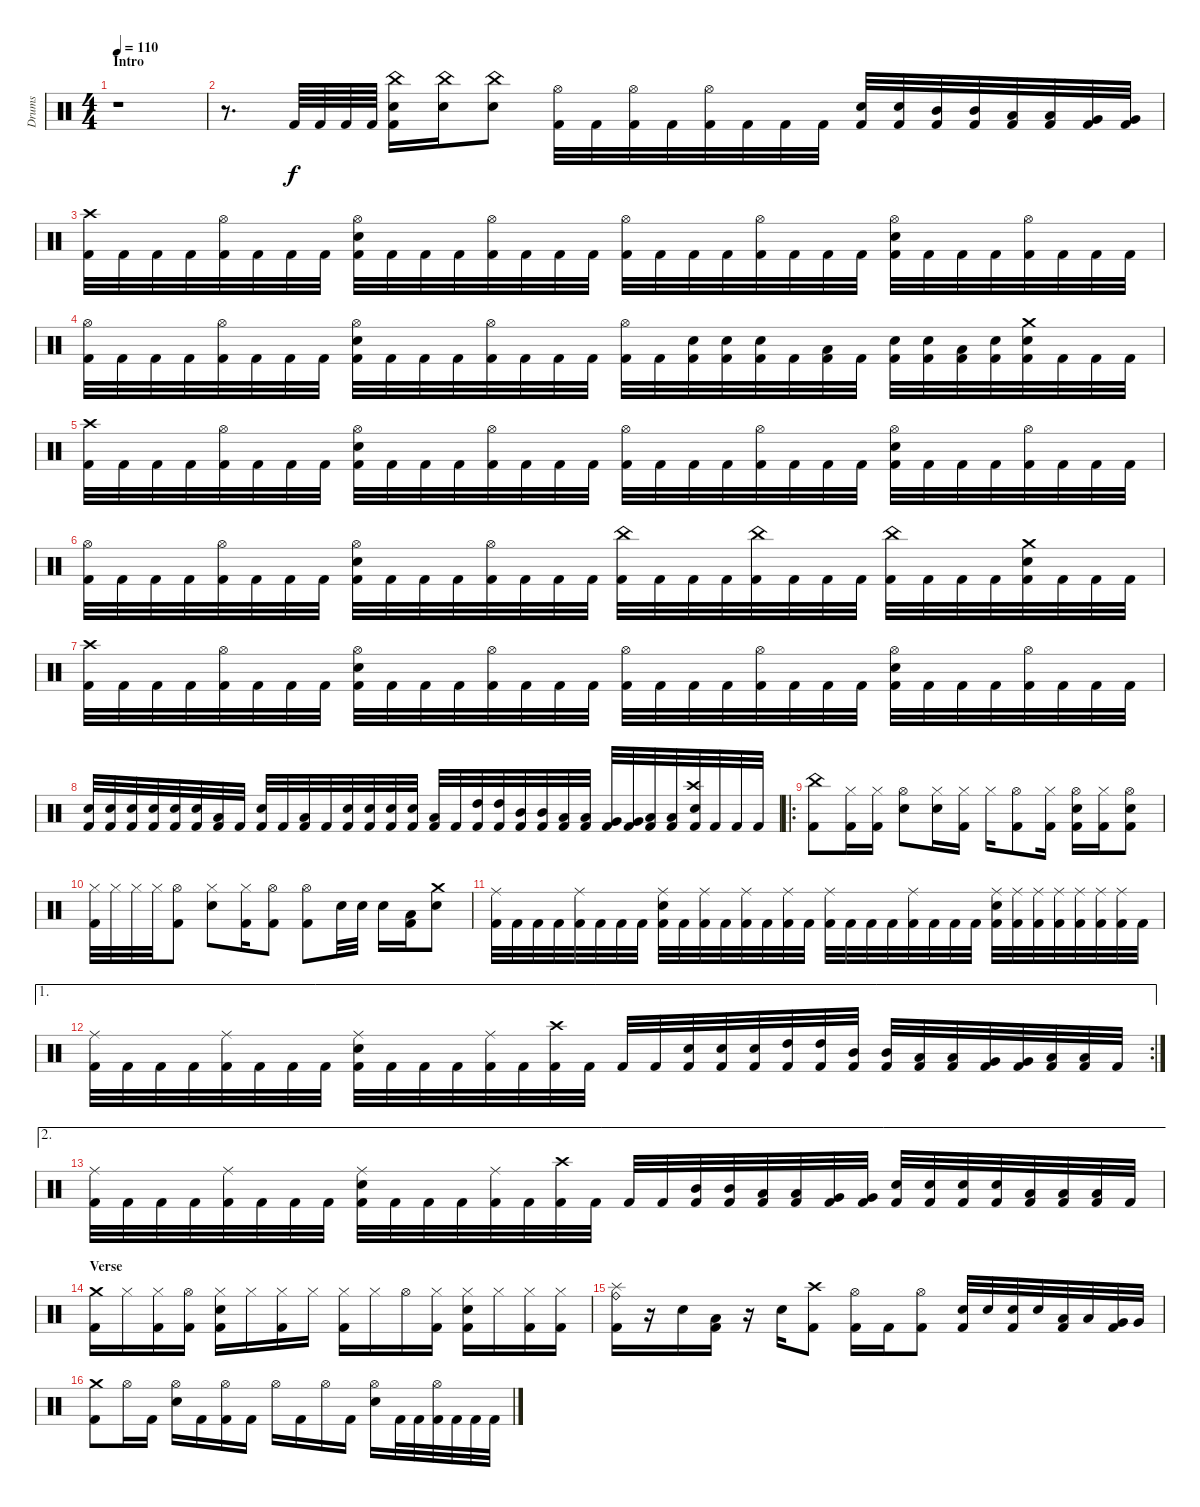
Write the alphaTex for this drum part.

\track ("Drums" "Drums") {instrument percussion}
\staff {score}
\articulation defaults
\ts (4 4)
\section ("" "Intro")
\tempo 110
\clef neutral
\ks c
r.1{dy f} |
r.8{d} "Kick (hit) 2".64 "Kick (hit) 2".64 "Kick (hit) 2".64 "Kick (hit) 2".64 ("China (hit)" "Electric Snare (hit)" "Kick (hit) 2").16 ("China (hit)" "Electric Snare (hit)").16 ("China (hit)" "Electric Snare (hit)").8 ("Hi-Hat (open)" "Kick (hit) 2").32 "Kick (hit) 2".32 ("Hi-Hat (open)" "Kick (hit) 2").32 "Kick (hit) 2".32 ("Hi-Hat (open)" "Kick (hit) 2").32 "Kick (hit) 2".32 "Kick (hit) 2".32 "Kick (hit) 2".32 ("Electric Snare (hit)" "Kick (hit) 2").32 ("Electric Snare (hit)" "Kick (hit) 2").32 ("Mid Tom (hit)" "Kick (hit) 2").32 ("Mid Tom (hit)" "Kick (hit) 2").32 ("Low Tom (hit)" "Kick (hit) 2").32 ("Low Tom (hit)" "Kick (hit) 2").32 ("Very Low Tom (hit)" "Kick (hit) 2").32 ("Very Low Tom (hit)" "Kick (hit) 2").32 |
("Crash high (hit)" "Kick (hit) 2").32 "Kick (hit) 2".32 "Kick (hit) 2".32 "Kick (hit) 2".32 ("Hi-Hat (open)" "Kick (hit) 2").32 "Kick (hit) 2".32 "Kick (hit) 2".32 "Kick (hit) 2".32 ("Hi-Hat (open)" "Electric Snare (hit)" "Kick (hit) 2").32 "Kick (hit) 2".32 "Kick (hit) 2".32 "Kick (hit) 2".32 ("Hi-Hat (open)" "Kick (hit) 2").32 "Kick (hit) 2".32 "Kick (hit) 2".32 "Kick (hit) 2".32 ("Hi-Hat (open)" "Kick (hit) 2").32 "Kick (hit) 2".32 "Kick (hit) 2".32 "Kick (hit) 2".32 ("Hi-Hat (open)" "Kick (hit) 2").32 "Kick (hit) 2".32 "Kick (hit) 2".32 "Kick (hit) 2".32 ("Hi-Hat (open)" "Electric Snare (hit)" "Kick (hit) 2").32 "Kick (hit) 2".32 "Kick (hit) 2".32 "Kick (hit) 2".32 ("Hi-Hat (open)" "Kick (hit) 2").32 "Kick (hit) 2".32 "Kick (hit) 2".32 "Kick (hit) 2".32 |
("Hi-Hat (open)" "Kick (hit) 2").32 "Kick (hit) 2".32 "Kick (hit) 2".32 "Kick (hit) 2".32 ("Hi-Hat (open)" "Kick (hit) 2").32 "Kick (hit) 2".32 "Kick (hit) 2".32 "Kick (hit) 2".32 ("Hi-Hat (open)" "Electric Snare (hit)" "Kick (hit) 2").32 "Kick (hit) 2".32 "Kick (hit) 2".32 "Kick (hit) 2".32 ("Hi-Hat (open)" "Kick (hit) 2").32 "Kick (hit) 2".32 "Kick (hit) 2".32 "Kick (hit) 2".32 ("Hi-Hat (open)" "Kick (hit) 2").32 "Kick (hit) 2".32 ("Electric Snare (hit)" "Kick (hit) 2").32 ("Electric Snare (hit)" "Kick (hit) 2").32 ("Electric Snare (hit)" "Kick (hit) 2").32 "Kick (hit) 2".32 ("Low Tom (hit)" "Kick (hit) 2").32 "Kick (hit) 2".32 ("Electric Snare (hit)" "Kick (hit) 2").32 ("Electric Snare (hit)" "Kick (hit) 2").32 ("Low Tom (hit)" "Kick (hit) 2").32 ("Electric Snare (hit)" "Kick (hit) 2").32 ("Crash medium (hit)" "Electric Snare (hit)" "Kick (hit) 2").32 "Kick (hit) 2".32 "Kick (hit) 2".32 "Kick (hit) 2".32 |
("Crash high (hit)" "Kick (hit) 2").32 "Kick (hit) 2".32 "Kick (hit) 2".32 "Kick (hit) 2".32 ("Hi-Hat (open)" "Kick (hit) 2").32 "Kick (hit) 2".32 "Kick (hit) 2".32 "Kick (hit) 2".32 ("Hi-Hat (open)" "Electric Snare (hit)" "Kick (hit) 2").32 "Kick (hit) 2".32 "Kick (hit) 2".32 "Kick (hit) 2".32 ("Hi-Hat (open)" "Kick (hit) 2").32 "Kick (hit) 2".32 "Kick (hit) 2".32 "Kick (hit) 2".32 ("Hi-Hat (open)" "Kick (hit) 2").32 "Kick (hit) 2".32 "Kick (hit) 2".32 "Kick (hit) 2".32 ("Hi-Hat (open)" "Kick (hit) 2").32 "Kick (hit) 2".32 "Kick (hit) 2".32 "Kick (hit) 2".32 ("Hi-Hat (open)" "Electric Snare (hit)" "Kick (hit) 2").32 "Kick (hit) 2".32 "Kick (hit) 2".32 "Kick (hit) 2".32 ("Hi-Hat (open)" "Kick (hit) 2").32 "Kick (hit) 2".32 "Kick (hit) 2".32 "Kick (hit) 2".32 |
("Hi-Hat (open)" "Kick (hit) 2").32 "Kick (hit) 2".32 "Kick (hit) 2".32 "Kick (hit) 2".32 ("Hi-Hat (open)" "Kick (hit) 2").32 "Kick (hit) 2".32 "Kick (hit) 2".32 "Kick (hit) 2".32 ("Hi-Hat (open)" "Electric Snare (hit)" "Kick (hit) 2").32 "Kick (hit) 2".32 "Kick (hit) 2".32 "Kick (hit) 2".32 ("Hi-Hat (open)" "Kick (hit) 2").32 "Kick (hit) 2".32 "Kick (hit) 2".32 "Kick (hit) 2".32 ("China (hit)" "Kick (hit) 2").32 "Kick (hit) 2".32 "Kick (hit) 2".32 "Kick (hit) 2".32 ("China (hit)" "Kick (hit) 2").32 "Kick (hit) 2".32 "Kick (hit) 2".32 "Kick (hit) 2".32 ("China (hit)" "Kick (hit) 2").32 "Kick (hit) 2".32 "Kick (hit) 2".32 "Kick (hit) 2".32 ("Crash medium (hit)" "Electric Snare (hit)" "Kick (hit) 2").32 "Kick (hit) 2".32 "Kick (hit) 2".32 "Kick (hit) 2".32 |
("Crash high (hit)" "Kick (hit) 2").32 "Kick (hit) 2".32 "Kick (hit) 2".32 "Kick (hit) 2".32 ("Hi-Hat (open)" "Kick (hit) 2").32 "Kick (hit) 2".32 "Kick (hit) 2".32 "Kick (hit) 2".32 ("Hi-Hat (open)" "Electric Snare (hit)" "Kick (hit) 2").32 "Kick (hit) 2".32 "Kick (hit) 2".32 "Kick (hit) 2".32 ("Hi-Hat (open)" "Kick (hit) 2").32 "Kick (hit) 2".32 "Kick (hit) 2".32 "Kick (hit) 2".32 ("Hi-Hat (open)" "Kick (hit) 2").32 "Kick (hit) 2".32 "Kick (hit) 2".32 "Kick (hit) 2".32 ("Hi-Hat (open)" "Kick (hit) 2").32 "Kick (hit) 2".32 "Kick (hit) 2".32 "Kick (hit) 2".32 ("Hi-Hat (open)" "Electric Snare (hit)" "Kick (hit) 2").32 "Kick (hit) 2".32 "Kick (hit) 2".32 "Kick (hit) 2".32 ("Hi-Hat (open)" "Kick (hit) 2").32 "Kick (hit) 2".32 "Kick (hit) 2".32 "Kick (hit) 2".32 |
("Electric Snare (hit)" "Kick (hit) 2").32 ("Electric Snare (hit)" "Kick (hit) 2").32 ("Electric Snare (hit)" "Kick (hit) 2").32 ("Electric Snare (hit)" "Kick (hit) 2").32 ("Electric Snare (hit)" "Kick (hit) 2").32 ("Electric Snare (hit)" "Kick (hit) 2").32 ("Low Tom (hit)" "Kick (hit) 2").32 "Kick (hit) 2".32 ("Electric Snare (hit)" "Kick (hit) 2").32 "Kick (hit) 2".32 ("Low Tom (hit)" "Kick (hit) 2").32 "Kick (hit) 2".32 ("Electric Snare (hit)" "Kick (hit) 2").32 ("Electric Snare (hit)" "Kick (hit) 2").32 ("Electric Snare (hit)" "Kick (hit) 2").32 ("Electric Snare (hit)" "Kick (hit) 2").32 ("Low Tom (hit)" "Kick (hit) 2").32 "Kick (hit) 2".32 ("High Tom (hit)" "Kick (hit) 2").32 ("High Tom (hit)" "Kick (hit) 2").32 ("Mid Tom (hit)" "Kick (hit) 2").32 ("Mid Tom (hit)" "Kick (hit) 2").32 ("Low Tom (hit)" "Kick (hit) 2").32 ("Low Tom (hit)" "Kick (hit) 2").32 ("Very Low Tom (hit)" "Kick (hit) 2").32 ("Very Low Tom (hit)" "Kick (hit) 2").32 ("Low Floor Tom (hit)" "Kick (hit) 2").32 ("Low Floor Tom (hit)" "Kick (hit) 2").32 ("Crash high (hit)" "Snare (hit) 2" "Kick (hit) 2").32 "Kick (hit) 2".32 "Kick (hit) 2".32 "Kick (hit) 2".32 |
\ro
("China (hit)" "Kick (hit) 2").8 ("Hi-Hat (closed)" "Kick (hit) 2").16 ("Hi-Hat (closed)" "Kick (hit) 2").16 ("Hi-Hat (open)" "Electric Snare (hit)").8 ("Hi-Hat (closed)" "Electric Snare (hit)").16 ("Hi-Hat (closed)" "Kick (hit) 2").16 "Hi-Hat (closed)".16 ("Hi-Hat (open)" "Kick (hit) 2").8 ("Hi-Hat (closed)" "Kick (hit) 2").16 ("Hi-Hat (open)" "Electric Snare (hit)" "Kick (hit) 2").16 ("Hi-Hat (closed)" "Kick (hit) 2").16 ("Hi-Hat (open)" "Electric Snare (hit)" "Kick (hit) 2").8 |
("Hi-Hat (closed)" "Kick (hit) 2").32 "Hi-Hat (closed)".32 "Hi-Hat (closed)".32 "Hi-Hat (closed)".32 ("Hi-Hat (open)" "Kick (hit) 2").8 ("Hi-Hat (closed)" "Electric Snare (hit)").8 ("Hi-Hat (closed)" "Kick (hit) 2").16 ("Hi-Hat (open)" "Kick (hit) 2").8 ("Hi-Hat (open)" "Kick (hit) 2").8 "Electric Snare (hit)".32 "Electric Snare (hit)".32 "Electric Snare (hit)".16 ("Low Tom (hit)" "Kick (hit) 2").16 ("Crash medium (hit)" "Electric Snare (hit)").8 |
("Ride (middle)" "Kick (hit) 2").32 "Kick (hit) 2".32 "Kick (hit) 2".32 "Kick (hit) 2".32 ("Ride (middle)" "Kick (hit) 2").32 "Kick (hit) 2".32 "Kick (hit) 2".32 "Kick (hit) 2".32 ("Ride (middle)" "Electric Snare (hit)" "Kick (hit) 2").32 "Kick (hit) 2".32 ("Ride (middle)" "Kick (hit) 2").32 "Kick (hit) 2".32 ("Ride (middle)" "Kick (hit) 2").32 "Kick (hit) 2".32 ("Ride (middle)" "Kick (hit) 2").32 "Kick (hit) 2".32 ("Ride (middle)" "Kick (hit) 2").32 "Kick (hit) 2".32 "Kick (hit) 2".32 "Kick (hit) 2".32 ("Ride (middle)" "Kick (hit) 2").32 "Kick (hit) 2".32 "Kick (hit) 2".32 "Kick (hit) 2".32 ("Ride (middle)" "Electric Snare (hit)" "Kick (hit) 2").32 ("Ride (middle)" "Kick (hit) 2").32 ("Ride (middle)" "Kick (hit) 2").32 ("Ride (middle)" "Kick (hit) 2").32 ("Ride (middle)" "Kick (hit) 2").32 ("Ride (middle)" "Kick (hit) 2").32 ("Ride (middle)" "Kick (hit) 2").32 "Kick (hit) 2".32 |
\ae 1
\rc 2
("Ride (middle)" "Kick (hit) 2").32 "Kick (hit) 2".32 "Kick (hit) 2".32 "Kick (hit) 2".32 ("Ride (middle)" "Kick (hit) 2").32 "Kick (hit) 2".32 "Kick (hit) 2".32 "Kick (hit) 2".32 ("Ride (middle)" "Electric Snare (hit)" "Kick (hit) 2").32 "Kick (hit) 2".32 "Kick (hit) 2".32 "Kick (hit) 2".32 ("Ride (middle)" "Kick (hit) 2").32 "Kick (hit) 2".32 ("Crash high (hit)" "Kick (hit) 2").32 "Kick (hit) 2".32 "Kick (hit) 2".32 "Kick (hit) 2".32 ("Electric Snare (hit)" "Kick (hit) 2").32 ("Electric Snare (hit)" "Kick (hit) 2").32 ("Electric Snare (hit)" "Kick (hit) 2").32 ("High Tom (hit)" "Kick (hit) 2").32 ("High Tom (hit)" "Kick (hit) 2").32 ("Mid Tom (hit)" "Kick (hit) 2").32 ("Mid Tom (hit)" "Kick (hit) 2").32 ("Low Tom (hit)" "Kick (hit) 2").32 ("Low Tom (hit)" "Kick (hit) 2").32 ("Very Low Tom (hit)" "Kick (hit) 2").32 ("Very Low Tom (hit)" "Kick (hit) 2").32 ("Low Floor Tom (hit)" "Kick (hit) 2").32 ("Low Floor Tom (hit)" "Kick (hit) 2").32 "Kick (hit) 2".32 |
\ae 2
("Ride (middle)" "Kick (hit) 2").32 "Kick (hit) 2".32 "Kick (hit) 2".32 "Kick (hit) 2".32 ("Ride (middle)" "Kick (hit) 2").32 "Kick (hit) 2".32 "Kick (hit) 2".32 "Kick (hit) 2".32 ("Ride (middle)" "Electric Snare (hit)" "Kick (hit) 2").32 "Kick (hit) 2".32 "Kick (hit) 2".32 "Kick (hit) 2".32 ("Ride (middle)" "Kick (hit) 2").32 "Kick (hit) 2".32 ("Crash high (hit)" "Kick (hit) 2").32 "Kick (hit) 2".32 "Kick (hit) 2".32 "Kick (hit) 2".32 ("Mid Tom (hit)" "Kick (hit) 2").32 ("Mid Tom (hit)" "Kick (hit) 2").32 ("Low Tom (hit)" "Kick (hit) 2").32 ("Low Tom (hit)" "Kick (hit) 2").32 ("Very Low Tom (hit)" "Kick (hit) 2").32 ("Very Low Tom (hit)" "Kick (hit) 2").32 ("Electric Snare (hit)" "Kick (hit) 2").32 ("Electric Snare (hit)" "Kick (hit) 2").32 ("Electric Snare (hit)" "Kick (hit) 2").32 ("Electric Snare (hit)" "Kick (hit) 2").32 ("Low Floor Tom (hit)" "Kick (hit) 2").32 ("Low Floor Tom (hit)" "Kick (hit) 2").32 ("Low Floor Tom (hit)" "Kick (hit) 2").32 "Kick (hit) 2".32 |
\section ("" "Verse ")
("Crash medium (hit)" "Kick (hit) 2").16 "Hi-Hat (closed)".16 ("Hi-Hat (closed)" "Kick (hit) 2").16 ("Hi-Hat (open)" "Kick (hit) 2").16 ("Hi-Hat (closed)" "Electric Snare (hit)" "Kick (hit) 2").16 "Hi-Hat (closed)".16 ("Hi-Hat (closed)" "Kick (hit) 2").16 "Hi-Hat (closed)".16 ("Hi-Hat (closed)" "Kick (hit) 2").16 "Hi-Hat (closed)".16 "Hi-Hat (open)".16 ("Hi-Hat (closed)" "Kick (hit) 2").16 ("Hi-Hat (closed)" "Electric Snare (hit)" "Kick (hit) 2").16 "Hi-Hat (closed)".16 ("Hi-Hat (closed)" "Kick (hit) 2").16 ("Hi-Hat (closed)" "Kick (hit) 2").16 |
("Ride (bell)" "Splash (hit)" "Kick (hit) 2").16 r.16 "Electric Snare (hit)".16 ("Low Tom (hit)" "Kick (hit) 2").16 r.16 "Electric Snare (hit)".16 ("Crash high (hit)" "Kick (hit) 2").8 ("Hi-Hat (open)" "Kick (hit) 2").16 "Kick (hit) 2".16 ("Hi-Hat (open)" "Kick (hit) 2").8 ("Electric Snare (hit)" "Kick (hit) 2").32 "Electric Snare (hit)".32 ("Electric Snare (hit)" "Kick (hit) 2").32 "Electric Snare (hit)".32 ("Low Tom (hit)" "Kick (hit) 2").32 "Low Tom (hit)".32 ("Very Low Tom (hit)" "Kick (hit) 2").32 "Very Low Tom (hit)".32 |
("Crash medium (hit)" "Kick (hit) 2").8 "Hi-Hat (open)".16 "Kick (hit) 2".16 ("Hi-Hat (open)" "Electric Snare (hit)").16 "Kick (hit) 2".16 ("Hi-Hat (open)" "Kick (hit) 2").16 "Kick (hit) 2".16 "Hi-Hat (open)".16 "Kick (hit) 2".16 "Hi-Hat (open)".16 "Kick (hit) 2".16 ("Hi-Hat (open)" "Electric Snare (hit)").16 "Kick (hit) 2".32 "Kick (hit) 2".32 ("Hi-Hat (open)" "Kick (hit) 2").32 "Kick (hit) 2".32 "Kick (hit) 2".32 "Kick (hit) 2".32
